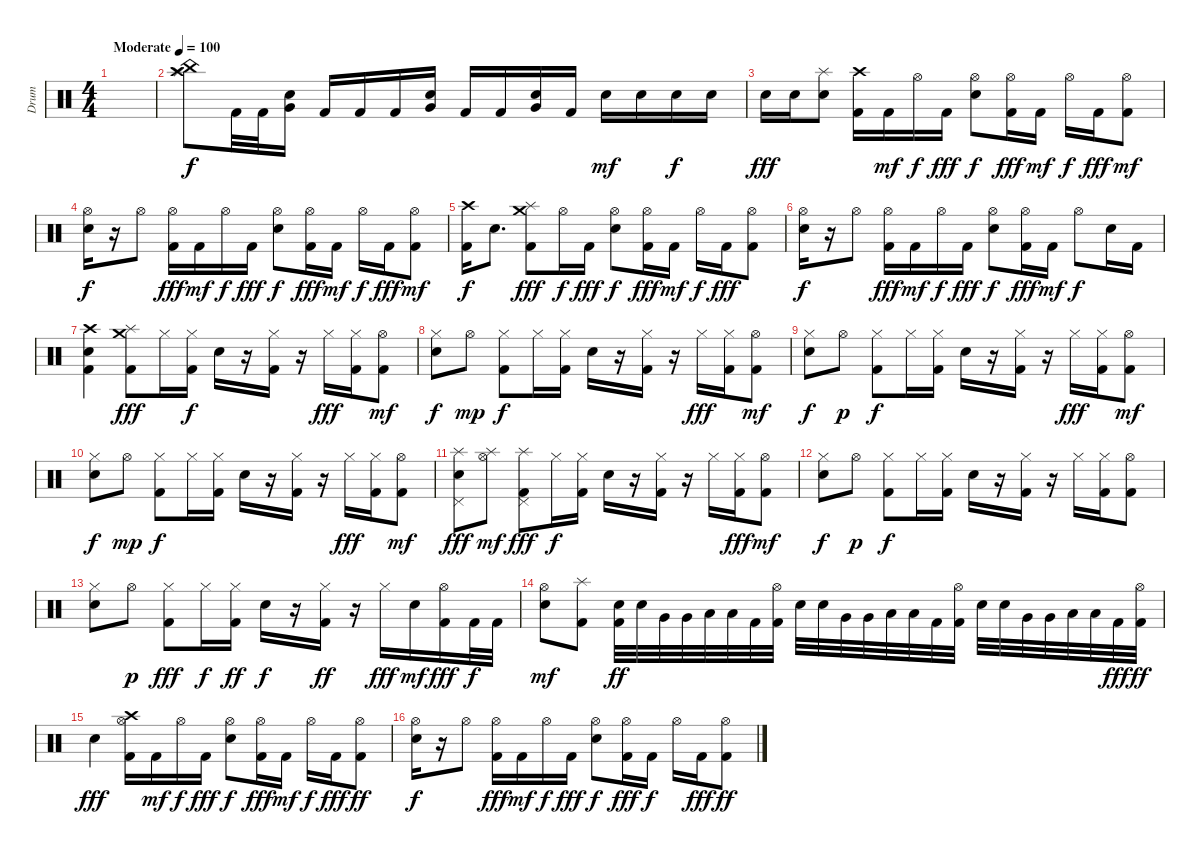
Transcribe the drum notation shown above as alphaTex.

\track ("Drum" "Drum") {instrument percussion}
\staff {score}
\articulation defaults
\ts (4 4)
\tempo (100 "Moderate")
\clef neutral
\ks c
|
("China (hit)" "Crash high (hit)" "Splash (hit)").8 "Kick (hit) 2".32 "Kick (hit) 2".32 ("Snare (hit) 2" "Very Low Tom (hit)").16 "Kick (hit) 2".16 "Kick (hit) 2".16 "Kick (hit) 2".16 ("Snare (hit) 2" "Very Low Tom (hit)").16 "Kick (hit) 2".16 "Kick (hit) 2".16 ("Snare (hit) 2" "Very Low Tom (hit)").16 "Kick (hit) 2".16 "Snare (hit) 2".16{dy mf} "Snare (hit) 2".16 "Snare (hit) 2".16{dy f} "Snare (hit) 2".16 |
"Snare (hit) 2".16{dy fff} "Snare (hit) 2".16 ("Snare (hit) 2" "Splash (hit)").8 ("Crash high (hit)" "Kick (hit) 2").16 "Kick (hit) 2".16{dy mf} "Hi-Hat (open)".16{dy f} "Kick (hit) 2".16{dy fff} ("Snare (hit) 2" "Hi-Hat (open)").8{dy f} ("Hi-Hat (open)" "Kick (hit) 2").16{dy fff} "Kick (hit) 2".16{dy mf} "Hi-Hat (open)".16{dy f} "Kick (hit) 2".16{dy fff} ("Hi-Hat (open)" "Kick (hit) 2").8{dy mf} |
("Snare (hit) 2" "Hi-Hat (open)").16{dy f} r.16 "Hi-Hat (open)".8 ("Hi-Hat (open)" "Kick (hit) 2").16{dy fff} "Kick (hit) 2".16{dy mf} "Hi-Hat (open)".16{dy f} "Kick (hit) 2".16{dy fff} ("Snare (hit) 2" "Hi-Hat (open)").8{dy f} ("Hi-Hat (open)" "Kick (hit) 2").16{dy fff} "Kick (hit) 2".16{dy mf} "Hi-Hat (open)".16{dy f} "Kick (hit) 2".16{dy fff} ("Hi-Hat (open)" "Kick (hit) 2").8{dy mf} |
("Crash high (hit)" "Kick (hit) 2").16{dy f} "Snare (hit) 2".8{d} ("Splash (hit)" "Crash medium (hit)" "Kick (hit) 2").8{dy fff} "Hi-Hat (open)".16{dy f} "Kick (hit) 2".16{dy fff} ("Snare (hit) 2" "Hi-Hat (open)").8{dy f} ("Hi-Hat (open)" "Kick (hit) 2").16{dy fff} "Kick (hit) 2".16{dy mf} "Hi-Hat (open)".16{dy f} "Kick (hit) 2".16{dy fff} ("Hi-Hat (open)" "Kick (hit) 2").8 |
("Snare (hit) 2" "Hi-Hat (open)").16{dy f} r.16 "Hi-Hat (open)".8 ("Hi-Hat (open)" "Kick (hit) 2").16{dy fff} "Kick (hit) 2".16{dy mf} "Hi-Hat (open)".16{dy f} "Kick (hit) 2".16{dy fff} ("Snare (hit) 2" "Hi-Hat (open)").8{dy f} ("Hi-Hat (open)" "Kick (hit) 2").16{dy fff} "Kick (hit) 2".16{dy mf} "Hi-Hat (open)".8{dy f} "Snare (hit) 2".16 "Kick (hit) 2".16 |
("Crash high (hit)" "Snare (hit) 2" "Kick (hit) 2").4 ("Crash medium (hit)" "Splash (hit)" "Kick (hit) 2").8{dy fff} "Hi-Hat (closed)".16 ("Hi-Hat (closed)" "Kick (hit) 2").16{dy f} "Snare (hit) 2".16 r.16 ("Hi-Hat (closed)" "Kick (hit) 2").16 r.16 "Hi-Hat (closed)".16{dy fff} ("Hi-Hat (closed)" "Kick (hit) 2").16 ("Hi-Hat (open)" "Kick (hit) 2").8{dy mf} |
("Snare (hit) 2" "Hi-Hat (closed)").8{dy f} "Hi-Hat (open)".8{dy mp} ("Hi-Hat (closed)" "Kick (hit) 2").8{dy f} "Hi-Hat (closed)".16 ("Hi-Hat (closed)" "Kick (hit) 2").16 "Snare (hit) 2".16 r.16 ("Hi-Hat (closed)" "Kick (hit) 2").16 r.16 "Hi-Hat (closed)".16{dy fff} ("Hi-Hat (closed)" "Kick (hit) 2").16 ("Hi-Hat (open)" "Kick (hit) 2").8{dy mf} |
("Snare (hit) 2" "Hi-Hat (closed)").8{dy f} "Hi-Hat (open)".8{dy p} ("Hi-Hat (closed)" "Kick (hit) 2").8{dy f} "Hi-Hat (closed)".16 ("Hi-Hat (closed)" "Kick (hit) 2").16 "Snare (hit) 2".16 r.16 ("Hi-Hat (closed)" "Kick (hit) 2").16 r.16 "Hi-Hat (closed)".16{dy fff} ("Hi-Hat (closed)" "Kick (hit) 2").16 ("Hi-Hat (open)" "Kick (hit) 2").8{dy mf} |
("Snare (hit) 2" "Hi-Hat (closed)").8{dy f} "Hi-Hat (open)".8{dy mp} ("Hi-Hat (closed)" "Kick (hit) 2").8{dy f} "Hi-Hat (closed)".16 ("Hi-Hat (closed)" "Kick (hit) 2").16 "Snare (hit) 2".16 r.16 ("Hi-Hat (closed)" "Kick (hit) 2").16 r.16 "Hi-Hat (closed)".16{dy fff} ("Hi-Hat (closed)" "Kick (hit) 2").16 ("Hi-Hat (open)" "Kick (hit) 2").8{dy mf} |
("Splash (hit)" "Snare (hit) 2" "Pedal Hi-Hat (hit)").8{dy fff} ("Splash (hit)" "Hi-Hat (open)").8{dy mf} ("Splash (hit)" "Pedal Hi-Hat (hit)" "Kick (hit) 2").8{dy fff} "Hi-Hat (closed)".16{dy f} ("Hi-Hat (closed)" "Kick (hit) 2").16 "Snare (hit) 2".16 r.16 ("Hi-Hat (closed)" "Kick (hit) 2").16 r.16 "Hi-Hat (closed)".16 ("Hi-Hat (closed)" "Kick (hit) 2").16{dy fff} ("Hi-Hat (open)" "Kick (hit) 2").8{dy mf} |
("Snare (hit) 2" "Hi-Hat (closed)").8{dy f} "Hi-Hat (open)".8{dy p} ("Hi-Hat (closed)" "Kick (hit) 2").8{dy f} "Hi-Hat (closed)".16 ("Hi-Hat (closed)" "Kick (hit) 2").16 "Snare (hit) 2".16 r.16 ("Hi-Hat (closed)" "Kick (hit) 2").16 r.16 "Hi-Hat (closed)".16 ("Hi-Hat (closed)" "Kick (hit) 2").16 ("Hi-Hat (open)" "Kick (hit) 2").8 |
("Snare (hit) 2" "Hi-Hat (closed)").8 "Hi-Hat (open)".8{dy p} ("Hi-Hat (closed)" "Kick (hit) 2").8{dy fff} "Hi-Hat (closed)".16{dy f} ("Hi-Hat (closed)" "Kick (hit) 2").16{dy ff} "Snare (hit) 2".16{dy f} r.16 ("Hi-Hat (closed)" "Kick (hit) 2").16{dy ff} r.16 "Hi-Hat (closed)".16{dy fff} "Snare (hit) 2".16{dy mf} ("Hi-Hat (open)" "Kick (hit) 2").16{dy fff} "Kick (hit) 2".32{dy f} "Kick (hit) 2".32 |
("Snare (hit) 2" "Hi-Hat (open)").8{dy mf} ("Splash (hit)" "Kick (hit) 2").8 ("Snare (hit) 2" "Kick (hit) 2").32{dy ff} "Snare (hit) 2".32 "Very Low Tom (hit)".32 "Very Low Tom (hit)".32 "Low Floor Tom (hit)".32 "Low Floor Tom (hit)".32 "Kick (hit) 2".32 ("Hi-Hat (open)" "Kick (hit) 2").32 "Snare (hit) 2".32 "Snare (hit) 2".32 "Very Low Tom (hit)".32 "Very Low Tom (hit)".32 "Low Floor Tom (hit)".32 "Low Floor Tom (hit)".32 "Kick (hit) 2".32 ("Hi-Hat (open)" "Kick (hit) 2").32 "Snare (hit) 2".32 "Snare (hit) 2".32 "Very Low Tom (hit)".32 "Very Low Tom (hit)".32 "Low Floor Tom (hit)".32 "Low Floor Tom (hit)".32 "Kick (hit) 2".32{dy fff} ("Hi-Hat (open)" "Kick (hit) 2").32{dy ff} |
"Snare (hit) 2".4{dy fff} ("Crash high (hit)" "Hi-Hat (open)" "Kick (hit) 2").16 "Kick (hit) 2".16{dy mf} "Hi-Hat (open)".16{dy f} "Kick (hit) 2".16{dy fff} ("Snare (hit) 2" "Hi-Hat (open)").8{dy f} ("Hi-Hat (open)" "Kick (hit) 2").16{dy fff} "Kick (hit) 2".16{dy mf} "Hi-Hat (open)".16{dy f} "Kick (hit) 2".16{dy fff} ("Hi-Hat (open)" "Kick (hit) 2").8{dy ff} |
("Snare (hit) 2" "Hi-Hat (open)").16{dy f} r.16 "Hi-Hat (open)".8 ("Hi-Hat (open)" "Kick (hit) 2").16{dy fff} "Kick (hit) 2".16{dy mf} "Hi-Hat (open)".16{dy f} "Kick (hit) 2".16{dy fff} ("Snare (hit) 2" "Hi-Hat (open)").8{dy f} ("Hi-Hat (open)" "Kick (hit) 2").16{dy fff} "Kick (hit) 2".16{dy f} "Hi-Hat (open)".16 "Kick (hit) 2".16{dy fff} ("Hi-Hat (open)" "Kick (hit) 2").8{dy ff}
